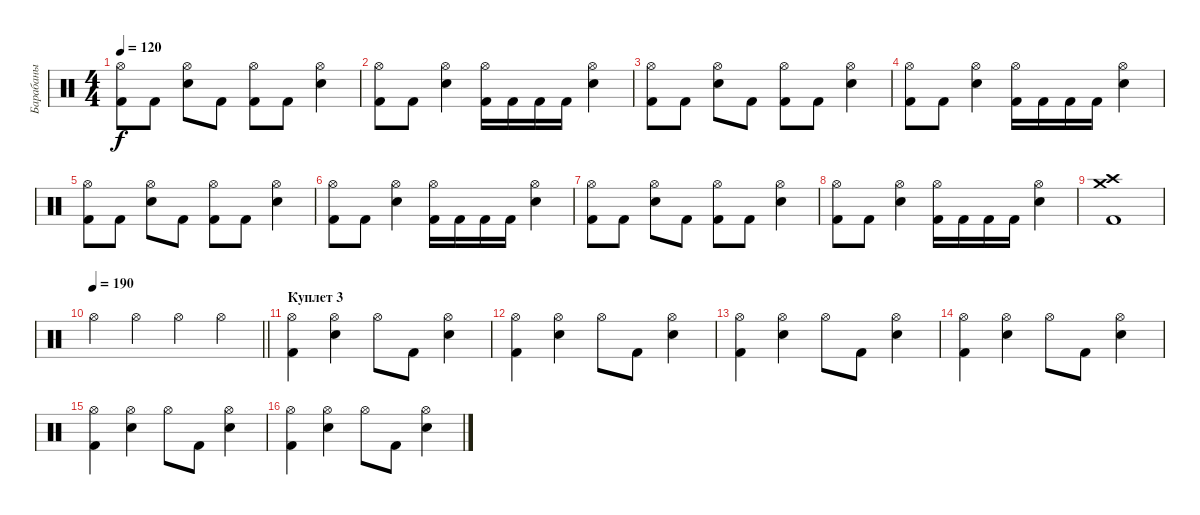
\track ("Барабаны" "Барабаны") {instrument percussion}
\staff {score}
\articulation defaults
\ts (4 4)
\tempo 120
\clef neutral
\ks c
("Kick (hit) 2" "Hi-Hat (open)").8{dy f} "Kick (hit) 2".8 ("Hi-Hat (open)" "Snare (hit) 2").8 "Kick (hit) 2".8 ("Hi-Hat (open)" "Kick (hit) 2").8 "Kick (hit) 2".8 ("Hi-Hat (open)" "Snare (hit) 2").4 |
("Kick (hit) 2" "Hi-Hat (open)").8 "Kick (hit) 2".8 ("Hi-Hat (open)" "Electric Snare (hit)").4 ("Kick (hit) 2" "Hi-Hat (open)").16 "Kick (hit) 2".16 "Kick (hit) 2".16 "Kick (hit) 2".16 ("Hi-Hat (open)" "Snare (hit) 2").4 |
("Kick (hit) 2" "Hi-Hat (open)").8 "Kick (hit) 2".8 ("Hi-Hat (open)" "Snare (hit) 2").8 "Kick (hit) 2".8 ("Hi-Hat (open)" "Kick (hit) 2").8 "Kick (hit) 2".8 ("Hi-Hat (open)" "Snare (hit) 2").4 |
("Kick (hit) 2" "Hi-Hat (open)").8 "Kick (hit) 2".8 ("Hi-Hat (open)" "Electric Snare (hit)").4 ("Kick (hit) 2" "Hi-Hat (open)").16 "Kick (hit) 2".16 "Kick (hit) 2".16 "Kick (hit) 2".16 ("Hi-Hat (open)" "Snare (hit) 2").4 |
("Kick (hit) 2" "Hi-Hat (open)").8 "Kick (hit) 2".8 ("Hi-Hat (open)" "Snare (hit) 2").8 "Kick (hit) 2".8 ("Hi-Hat (open)" "Kick (hit) 2").8 "Kick (hit) 2".8 ("Hi-Hat (open)" "Snare (hit) 2").4 |
("Kick (hit) 2" "Hi-Hat (open)").8 "Kick (hit) 2".8 ("Hi-Hat (open)" "Electric Snare (hit)").4 ("Kick (hit) 2" "Hi-Hat (open)").16 "Kick (hit) 2".16 "Kick (hit) 2".16 "Kick (hit) 2".16 ("Hi-Hat (open)" "Snare (hit) 2").4 |
("Kick (hit) 2" "Hi-Hat (open)").8 "Kick (hit) 2".8 ("Hi-Hat (open)" "Snare (hit) 2").8 "Kick (hit) 2".8 ("Hi-Hat (open)" "Kick (hit) 2").8 "Kick (hit) 2".8 ("Hi-Hat (open)" "Snare (hit) 2").4 |
("Kick (hit) 2" "Hi-Hat (open)").8 "Kick (hit) 2".8 ("Hi-Hat (open)" "Electric Snare (hit)").4 ("Kick (hit) 2" "Hi-Hat (open)").16 "Kick (hit) 2".16 "Kick (hit) 2".16 "Kick (hit) 2".16 ("Hi-Hat (open)" "Snare (hit) 2").4 |
("Kick (hit) 2" "Crash high (hit)" "Crash medium (hit)").1 |
\tempo 190
\barLineRight lightlight "Hi-Hat (open)".4 "Hi-Hat (open)".4 "Hi-Hat (open)".4 "Hi-Hat (open)".4
|
\section ("" "Куплет 3")
("Kick (hit) 2" "Hi-Hat (open)").4 ("Hi-Hat (open)" "Electric Snare (hit)").4 "Hi-Hat (open)".8 "Kick (hit) 2".8 ("Hi-Hat (open)" "Electric Snare (hit)").4 |
("Kick (hit) 2" "Hi-Hat (open)").4 ("Hi-Hat (open)" "Electric Snare (hit)").4 "Hi-Hat (open)".8 "Kick (hit) 2".8 ("Hi-Hat (open)" "Electric Snare (hit)").4 |
("Kick (hit) 2" "Hi-Hat (open)").4 ("Hi-Hat (open)" "Electric Snare (hit)").4 "Hi-Hat (open)".8 "Kick (hit) 2".8 ("Hi-Hat (open)" "Electric Snare (hit)").4 |
("Kick (hit) 2" "Hi-Hat (open)").4 ("Hi-Hat (open)" "Electric Snare (hit)").4 "Hi-Hat (open)".8 "Kick (hit) 2".8 ("Hi-Hat (open)" "Electric Snare (hit)").4 |
("Kick (hit) 2" "Hi-Hat (open)").4 ("Hi-Hat (open)" "Electric Snare (hit)").4 "Hi-Hat (open)".8 "Kick (hit) 2".8 ("Hi-Hat (open)" "Electric Snare (hit)").4 |
("Kick (hit) 2" "Hi-Hat (open)").4 ("Hi-Hat (open)" "Electric Snare (hit)").4 "Hi-Hat (open)".8 "Kick (hit) 2".8 ("Hi-Hat (open)" "Electric Snare (hit)").4
